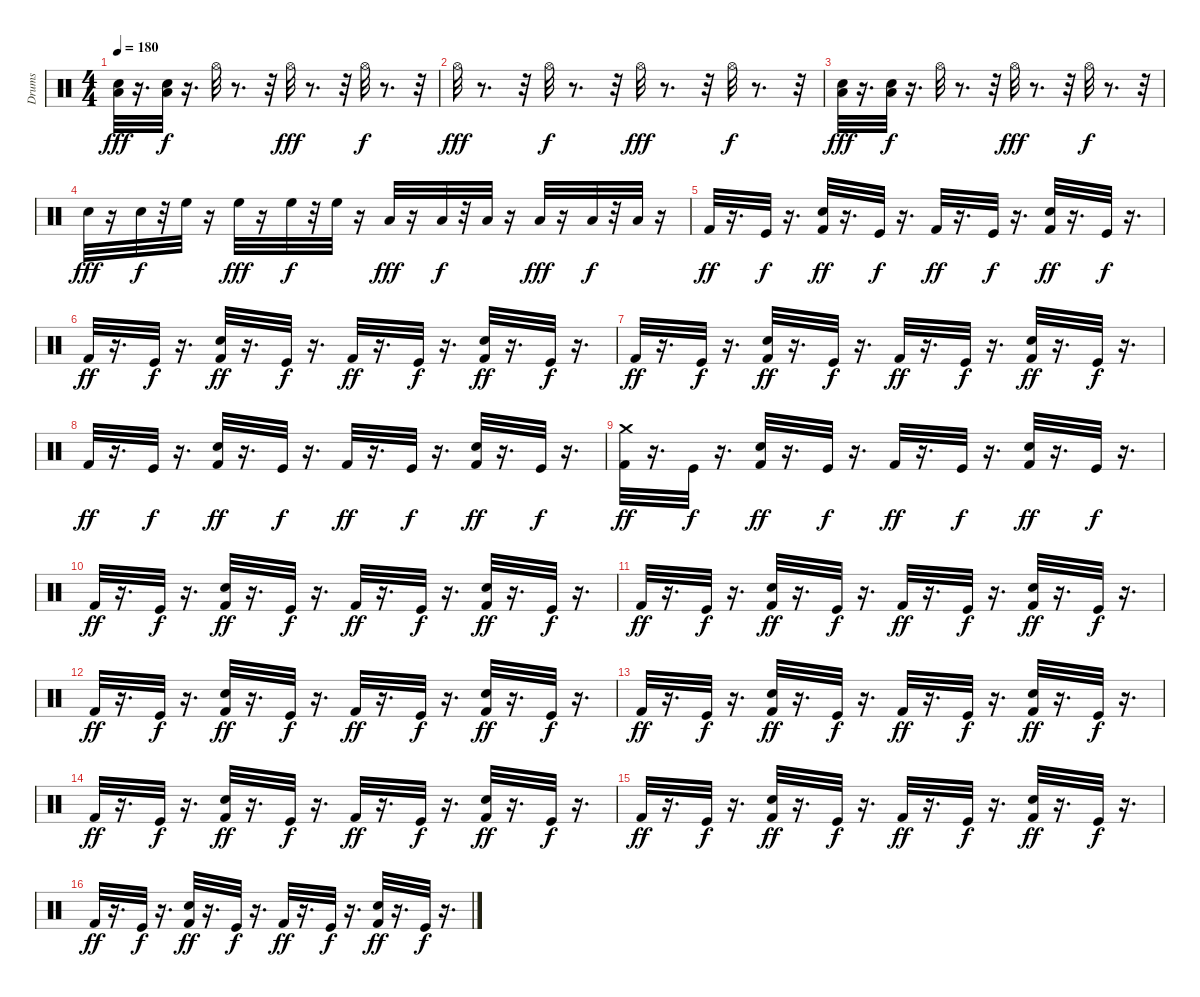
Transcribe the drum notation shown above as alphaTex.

\track ("Drums" "Drums") {instrument percussion}
\staff {score}
\articulation defaults
\ts (4 4)
\tempo 180
\clef neutral
\ks c
("Low Floor Tom (hit)" "Snare (hit) 2").32{dy fff} r.16{d} ("Low Floor Tom (hit)" "Snare (hit) 2").32{dy f} r.16{d} "Hi-Hat (open)".32 r.8{d} r.32 "Hi-Hat (open)".32{dy fff} r.8{d} r.32 "Hi-Hat (open)".32{dy f} r.8{d} r.32 |
"Hi-Hat (open)".32{dy fff} r.8{d} r.32 "Hi-Hat (open)".32{dy f} r.8{d} r.32 "Hi-Hat (open)".32{dy fff} r.8{d} r.32 "Hi-Hat (open)".32{dy f} r.8{d} r.32 |
("Low Floor Tom (hit)" "Snare (hit) 2").32{dy fff} r.16{d} ("Low Floor Tom (hit)" "Snare (hit) 2").32{dy f} r.16{d} "Hi-Hat (open)".32 r.8{d} r.32 "Hi-Hat (open)".32{dy fff} r.8{d} r.32 "Hi-Hat (open)".32{dy f} r.8{d} r.32 |
"Snare (hit) 2".32{dy fff} r.16 "Snare (hit) 2".32{dy f} r.32 "High Floor Tom (hit)".32 r.16 "High Floor Tom (hit)".32{dy fff} r.16 "High Floor Tom (hit)".32{dy f} r.32 "High Floor Tom (hit)".32 r.16 "Low Tom (hit)".32{dy fff} r.16 "Low Tom (hit)".32{dy f} r.32 "Low Tom (hit)".32 r.16 "Low Floor Tom (hit)".32{dy fff} r.16 "Low Floor Tom (hit)".32{dy f} r.32 "Low Floor Tom (hit)".32 r.16 |
"Kick (hit) 2".32{dy ff} r.16{d} "Kick (hit)".32{dy f} r.16{d} ("Snare (hit) 2" "Kick (hit) 2").32{dy ff} r.16{d} "Kick (hit)".32{dy f} r.16{d} "Kick (hit) 2".32{dy ff} r.16{d} "Kick (hit)".32{dy f} r.16{d} ("Snare (hit) 2" "Kick (hit) 2").32{dy ff} r.16{d} "Kick (hit)".32{dy f} r.16{d} |
"Kick (hit) 2".32{dy ff} r.16{d} "Kick (hit)".32{dy f} r.16{d} ("Snare (hit) 2" "Kick (hit) 2").32{dy ff} r.16{d} "Kick (hit)".32{dy f} r.16{d} "Kick (hit) 2".32{dy ff} r.16{d} "Kick (hit)".32{dy f} r.16{d} ("Snare (hit) 2" "Kick (hit) 2").32{dy ff} r.16{d} "Kick (hit)".32{dy f} r.16{d} |
"Kick (hit) 2".32{dy ff} r.16{d} "Kick (hit)".32{dy f} r.16{d} ("Snare (hit) 2" "Kick (hit) 2").32{dy ff} r.16{d} "Kick (hit)".32{dy f} r.16{d} "Kick (hit) 2".32{dy ff} r.16{d} "Kick (hit)".32{dy f} r.16{d} ("Snare (hit) 2" "Kick (hit) 2").32{dy ff} r.16{d} "Kick (hit)".32{dy f} r.16{d} |
"Kick (hit) 2".32{dy ff} r.16{d} "Kick (hit)".32{dy f} r.16{d} ("Snare (hit) 2" "Kick (hit) 2").32{dy ff} r.16{d} "Kick (hit)".32{dy f} r.16{d} "Kick (hit) 2".32{dy ff} r.16{d} "Kick (hit)".32{dy f} r.16{d} ("Snare (hit) 2" "Kick (hit) 2").32{dy ff} r.16{d} "Kick (hit)".32{dy f} r.16{d} |
("Crash medium (hit)" "Kick (hit) 2").32{dy ff} r.16{d} "Kick (hit)".32{dy f} r.16{d} ("Snare (hit) 2" "Kick (hit) 2").32{dy ff} r.16{d} "Kick (hit)".32{dy f} r.16{d} "Kick (hit) 2".32{dy ff} r.16{d} "Kick (hit)".32{dy f} r.16{d} ("Snare (hit) 2" "Kick (hit) 2").32{dy ff} r.16{d} "Kick (hit)".32{dy f} r.16{d} |
"Kick (hit) 2".32{dy ff} r.16{d} "Kick (hit)".32{dy f} r.16{d} ("Snare (hit) 2" "Kick (hit) 2").32{dy ff} r.16{d} "Kick (hit)".32{dy f} r.16{d} "Kick (hit) 2".32{dy ff} r.16{d} "Kick (hit)".32{dy f} r.16{d} ("Snare (hit) 2" "Kick (hit) 2").32{dy ff} r.16{d} "Kick (hit)".32{dy f} r.16{d} |
"Kick (hit) 2".32{dy ff} r.16{d} "Kick (hit)".32{dy f} r.16{d} ("Snare (hit) 2" "Kick (hit) 2").32{dy ff} r.16{d} "Kick (hit)".32{dy f} r.16{d} "Kick (hit) 2".32{dy ff} r.16{d} "Kick (hit)".32{dy f} r.16{d} ("Snare (hit) 2" "Kick (hit) 2").32{dy ff} r.16{d} "Kick (hit)".32{dy f} r.16{d} |
"Kick (hit) 2".32{dy ff} r.16{d} "Kick (hit)".32{dy f} r.16{d} ("Snare (hit) 2" "Kick (hit) 2").32{dy ff} r.16{d} "Kick (hit)".32{dy f} r.16{d} "Kick (hit) 2".32{dy ff} r.16{d} "Kick (hit)".32{dy f} r.16{d} ("Snare (hit) 2" "Kick (hit) 2").32{dy ff} r.16{d} "Kick (hit)".32{dy f} r.16{d} |
"Kick (hit) 2".32{dy ff} r.16{d} "Kick (hit)".32{dy f} r.16{d} ("Snare (hit) 2" "Kick (hit) 2").32{dy ff} r.16{d} "Kick (hit)".32{dy f} r.16{d} "Kick (hit) 2".32{dy ff} r.16{d} "Kick (hit)".32{dy f} r.16{d} ("Snare (hit) 2" "Kick (hit) 2").32{dy ff} r.16{d} "Kick (hit)".32{dy f} r.16{d} |
"Kick (hit) 2".32{dy ff} r.16{d} "Kick (hit)".32{dy f} r.16{d} ("Snare (hit) 2" "Kick (hit) 2").32{dy ff} r.16{d} "Kick (hit)".32{dy f} r.16{d} "Kick (hit) 2".32{dy ff} r.16{d} "Kick (hit)".32{dy f} r.16{d} ("Snare (hit) 2" "Kick (hit) 2").32{dy ff} r.16{d} "Kick (hit)".32{dy f} r.16{d} |
"Kick (hit) 2".32{dy ff} r.16{d} "Kick (hit)".32{dy f} r.16{d} ("Snare (hit) 2" "Kick (hit) 2").32{dy ff} r.16{d} "Kick (hit)".32{dy f} r.16{d} "Kick (hit) 2".32{dy ff} r.16{d} "Kick (hit)".32{dy f} r.16{d} ("Snare (hit) 2" "Kick (hit) 2").32{dy ff} r.16{d} "Kick (hit)".32{dy f} r.16{d} |
"Kick (hit) 2".32{dy ff} r.16{d} "Kick (hit)".32{dy f} r.16{d} ("Snare (hit) 2" "Kick (hit) 2").32{dy ff} r.16{d} "Kick (hit)".32{dy f} r.16{d} "Kick (hit) 2".32{dy ff} r.16{d} "Kick (hit)".32{dy f} r.16{d} ("Snare (hit) 2" "Kick (hit) 2").32{dy ff} r.16{d} "Kick (hit)".32{dy f} r.16{d}
